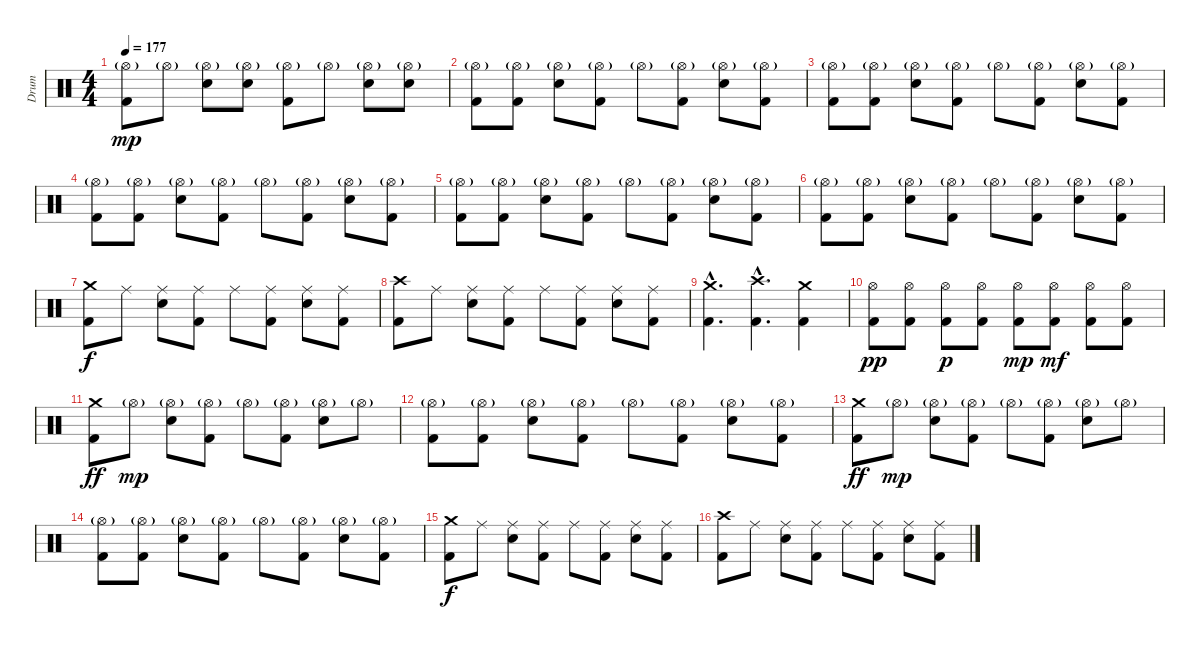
\track ("Drum" "Drum") {instrument percussion}
\staff {score}
\articulation defaults
\ts (4 4)
\tempo 177
\clef neutral
\ks c
("Hi-Hat (open)"{g} "Kick (hit) 2").8{dy mp} "Hi-Hat (open)"{g}.8 ("Hi-Hat (open)"{g} "Electric Snare (hit)").8 ("Hi-Hat (open)"{g} "Electric Snare (hit)").8 ("Hi-Hat (open)"{g} "Kick (hit) 2").8 "Hi-Hat (open)"{g}.8 ("Hi-Hat (open)"{g} "Electric Snare (hit)").8 ("Hi-Hat (open)"{g} "Electric Snare (hit)").8 |
("Hi-Hat (open)"{g} "Kick (hit) 2").8 ("Hi-Hat (open)"{g} "Kick (hit) 2").8 ("Hi-Hat (open)"{g} "Electric Snare (hit)").8 ("Hi-Hat (open)"{g} "Kick (hit) 2").8 "Hi-Hat (open)"{g}.8 ("Hi-Hat (open)"{g} "Kick (hit) 2").8 ("Hi-Hat (open)"{g} "Electric Snare (hit)").8 ("Hi-Hat (open)"{g} "Kick (hit) 2").8 |
("Hi-Hat (open)"{g} "Kick (hit) 2").8 ("Hi-Hat (open)"{g} "Kick (hit) 2").8 ("Hi-Hat (open)"{g} "Electric Snare (hit)").8 ("Hi-Hat (open)"{g} "Kick (hit) 2").8 "Hi-Hat (open)"{g}.8 ("Hi-Hat (open)"{g} "Kick (hit) 2").8 ("Hi-Hat (open)"{g} "Electric Snare (hit)").8 ("Hi-Hat (open)"{g} "Kick (hit) 2").8 |
("Hi-Hat (open)"{g} "Kick (hit) 2").8 ("Hi-Hat (open)"{g} "Kick (hit) 2").8 ("Hi-Hat (open)"{g} "Electric Snare (hit)").8 ("Hi-Hat (open)"{g} "Kick (hit) 2").8 "Hi-Hat (open)"{g}.8 ("Hi-Hat (open)"{g} "Kick (hit) 2").8 ("Hi-Hat (open)"{g} "Electric Snare (hit)").8 ("Hi-Hat (open)"{g} "Kick (hit) 2").8 |
("Hi-Hat (open)"{g} "Kick (hit) 2").8 ("Hi-Hat (open)"{g} "Kick (hit) 2").8 ("Hi-Hat (open)"{g} "Electric Snare (hit)").8 ("Hi-Hat (open)"{g} "Kick (hit) 2").8 "Hi-Hat (open)"{g}.8 ("Hi-Hat (open)"{g} "Kick (hit) 2").8 ("Hi-Hat (open)"{g} "Electric Snare (hit)").8 ("Hi-Hat (open)"{g} "Kick (hit) 2").8 |
("Hi-Hat (open)"{g} "Kick (hit) 2").8 ("Hi-Hat (open)"{g} "Kick (hit) 2").8 ("Hi-Hat (open)"{g} "Electric Snare (hit)").8 ("Hi-Hat (open)"{g} "Kick (hit) 2").8 "Hi-Hat (open)"{g}.8 ("Hi-Hat (open)"{g} "Kick (hit) 2").8 ("Hi-Hat (open)"{g} "Electric Snare (hit)").8 ("Hi-Hat (open)"{g} "Kick (hit) 2").8 |
("Crash medium (hit)" "Kick (hit) 2").8{dy f} "Ride (middle)".8 ("Ride (middle)" "Electric Snare (hit)").8 ("Ride (middle)" "Kick (hit) 2").8 "Ride (middle)".8 ("Ride (middle)" "Kick (hit) 2").8 ("Ride (middle)" "Electric Snare (hit)").8 ("Ride (middle)" "Kick (hit) 2").8 |
("Crash high (hit)" "Kick (hit) 2").8 "Ride (middle)".8 ("Ride (middle)" "Electric Snare (hit)").8 ("Ride (middle)" "Kick (hit) 2").8 "Ride (middle)".8 ("Ride (middle)" "Kick (hit) 2").8 ("Ride (middle)" "Electric Snare (hit)").8 ("Ride (middle)" "Kick (hit) 2").8 |
("Crash medium (hit)"{hac} "Kick (hit) 2"{hac}).4{d} ("Crash high (hit)"{hac} "Kick (hit) 2"{hac}).4{d} ("Crash medium (hit)" "Kick (hit) 2").4 |
("Hi-Hat (open)" "Kick (hit) 2").8{dy pp} ("Hi-Hat (open)" "Kick (hit) 2").8 ("Hi-Hat (open)" "Kick (hit) 2").8{dy p} ("Hi-Hat (open)" "Kick (hit) 2").8 ("Hi-Hat (open)" "Kick (hit) 2").8{dy mp} ("Hi-Hat (open)" "Kick (hit) 2").8{dy mf} ("Hi-Hat (open)" "Kick (hit) 2").8 ("Hi-Hat (open)" "Kick (hit) 2").8 |
("Crash medium (hit)" "Kick (hit) 2").8{dy ff} "Hi-Hat (open)"{g}.8{dy mp} ("Hi-Hat (open)"{g} "Electric Snare (hit)").8 ("Hi-Hat (open)"{g} "Kick (hit) 2").8 "Hi-Hat (open)"{g}.8 ("Hi-Hat (open)"{g} "Kick (hit) 2").8 ("Hi-Hat (open)"{g} "Electric Snare (hit)").8 "Hi-Hat (open)"{g}.8 |
("Hi-Hat (open)"{g} "Kick (hit) 2").8 ("Hi-Hat (open)"{g} "Kick (hit) 2").8 ("Hi-Hat (open)"{g} "Electric Snare (hit)").8 ("Hi-Hat (open)"{g} "Kick (hit) 2").8 "Hi-Hat (open)"{g}.8 ("Hi-Hat (open)"{g} "Kick (hit) 2").8 ("Hi-Hat (open)"{g} "Electric Snare (hit)").8 ("Hi-Hat (open)"{g} "Kick (hit) 2").8 |
("Crash medium (hit)" "Kick (hit) 2").8{dy ff} "Hi-Hat (open)"{g}.8{dy mp} ("Hi-Hat (open)"{g} "Electric Snare (hit)").8 ("Hi-Hat (open)"{g} "Kick (hit) 2").8 "Hi-Hat (open)"{g}.8 ("Hi-Hat (open)"{g} "Kick (hit) 2").8 ("Hi-Hat (open)"{g} "Electric Snare (hit)").8 "Hi-Hat (open)"{g}.8 |
("Hi-Hat (open)"{g} "Kick (hit) 2").8 ("Hi-Hat (open)"{g} "Kick (hit) 2").8 ("Hi-Hat (open)"{g} "Electric Snare (hit)").8 ("Hi-Hat (open)"{g} "Kick (hit) 2").8 "Hi-Hat (open)"{g}.8 ("Hi-Hat (open)"{g} "Kick (hit) 2").8 ("Hi-Hat (open)"{g} "Electric Snare (hit)").8 ("Hi-Hat (open)"{g} "Kick (hit) 2").8 |
("Crash medium (hit)" "Kick (hit) 2").8{dy f} "Ride (middle)".8 ("Ride (middle)" "Electric Snare (hit)").8 ("Ride (middle)" "Kick (hit) 2").8 "Ride (middle)".8 ("Ride (middle)" "Kick (hit) 2").8 ("Ride (middle)" "Electric Snare (hit)").8 ("Ride (middle)" "Kick (hit) 2").8 |
("Crash high (hit)" "Kick (hit) 2").8 "Ride (middle)".8 ("Ride (middle)" "Electric Snare (hit)").8 ("Ride (middle)" "Kick (hit) 2").8 "Ride (middle)".8 ("Ride (middle)" "Kick (hit) 2").8 ("Ride (middle)" "Electric Snare (hit)").8 ("Ride (middle)" "Kick (hit) 2").8
